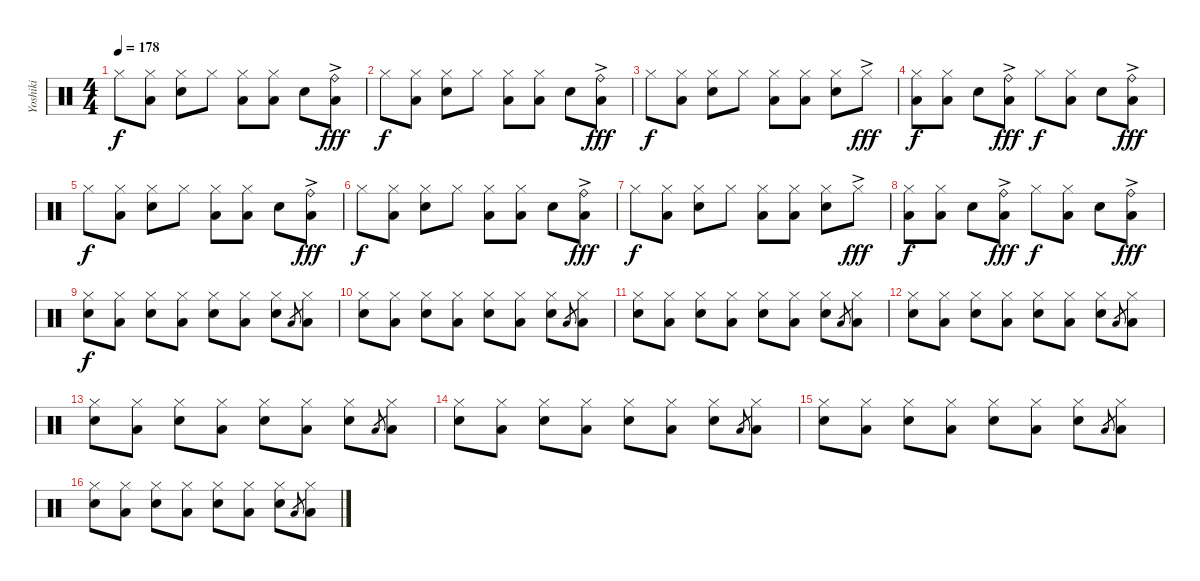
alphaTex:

\track ("Yoshiki" "Yoshiki") {instrument percussion}
\staff {score}
\articulation defaults
\ts (4 4)
\tempo 178
\clef neutral
\ks c "Hi-Hat (closed)".8{dy f}
("Hi-Hat (closed)" "Low Floor Tom (hit)").8 ("Hi-Hat (closed)" "Snare (hit) 2").8 "Hi-Hat (closed)".8 ("Hi-Hat (closed)" "Low Floor Tom (hit)").8 ("Hi-Hat (closed)" "Low Floor Tom (hit)").8 "Snare (hit) 2".8 ("Ride (bell)"{ac} "Low Floor Tom (hit)").8{dy fff} |
"Hi-Hat (closed)".8{dy f} ("Hi-Hat (closed)" "Low Floor Tom (hit)").8 ("Hi-Hat (closed)" "Snare (hit) 2").8 "Hi-Hat (closed)".8 ("Hi-Hat (closed)" "Low Floor Tom (hit)").8 ("Hi-Hat (closed)" "Low Floor Tom (hit)").8 "Snare (hit) 2".8 ("Ride (bell)"{ac} "Low Floor Tom (hit)").8{dy fff} |
"Hi-Hat (closed)".8{dy f} ("Hi-Hat (closed)" "Low Floor Tom (hit)").8 ("Hi-Hat (closed)" "Snare (hit) 2").8 "Hi-Hat (closed)".8 ("Hi-Hat (closed)" "Low Floor Tom (hit)").8 ("Hi-Hat (closed)" "Low Floor Tom (hit)").8 ("Hi-Hat (closed)" "Snare (hit) 2").8 "Hi-Hat (closed)"{ac}.8{dy fff} |
("Hi-Hat (closed)" "Low Floor Tom (hit)").8{dy f} ("Hi-Hat (closed)" "Low Floor Tom (hit)").8 "Snare (hit) 2".8 ("Ride (bell)"{ac} "Low Floor Tom (hit)").8{dy fff} "Hi-Hat (closed)".8{dy f} ("Hi-Hat (closed)" "Low Floor Tom (hit)").8 "Snare (hit) 2".8 ("Ride (bell)"{ac} "Low Floor Tom (hit)").8{dy fff} |
"Hi-Hat (closed)".8{dy f} ("Hi-Hat (closed)" "Low Floor Tom (hit)").8 ("Hi-Hat (closed)" "Snare (hit) 2").8 "Hi-Hat (closed)".8 ("Hi-Hat (closed)" "Low Floor Tom (hit)").8 ("Hi-Hat (closed)" "Low Floor Tom (hit)").8 "Snare (hit) 2".8 ("Ride (bell)"{ac} "Low Floor Tom (hit)").8{dy fff} |
"Hi-Hat (closed)".8{dy f} ("Hi-Hat (closed)" "Low Floor Tom (hit)").8 ("Hi-Hat (closed)" "Snare (hit) 2").8 "Hi-Hat (closed)".8 ("Hi-Hat (closed)" "Low Floor Tom (hit)").8 ("Hi-Hat (closed)" "Low Floor Tom (hit)").8 "Snare (hit) 2".8 ("Ride (bell)"{ac} "Low Floor Tom (hit)").8{dy fff} |
"Hi-Hat (closed)".8{dy f} ("Hi-Hat (closed)" "Low Floor Tom (hit)").8 ("Hi-Hat (closed)" "Snare (hit) 2").8 "Hi-Hat (closed)".8 ("Hi-Hat (closed)" "Low Floor Tom (hit)").8 ("Hi-Hat (closed)" "Low Floor Tom (hit)").8 ("Hi-Hat (closed)" "Snare (hit) 2").8 "Hi-Hat (closed)"{ac}.8{dy fff} |
("Hi-Hat (closed)" "Low Floor Tom (hit)").8{dy f} ("Hi-Hat (closed)" "Low Floor Tom (hit)").8 "Snare (hit) 2".8 ("Ride (bell)"{ac} "Low Floor Tom (hit)").8{dy fff} "Hi-Hat (closed)".8{dy f} ("Hi-Hat (closed)" "Low Floor Tom (hit)").8 "Snare (hit) 2".8 ("Ride (bell)"{ac} "Low Floor Tom (hit)").8{dy fff} |
("Hi-Hat (closed)" "Snare (hit) 2").8{dy f} ("Hi-Hat (closed)" "Low Floor Tom (hit)").8 ("Hi-Hat (closed)" "Snare (hit) 2").8 ("Hi-Hat (closed)" "Low Floor Tom (hit)").8 ("Hi-Hat (closed)" "Snare (hit) 2").8 ("Hi-Hat (closed)" "Low Floor Tom (hit)").8 ("Hi-Hat (closed)" "Snare (hit) 2").8 "Low Floor Tom (hit)".8{gr} ("Hi-Hat (closed)" "Low Floor Tom (hit)").8 |
("Hi-Hat (closed)" "Snare (hit) 2").8 ("Hi-Hat (closed)" "Low Floor Tom (hit)").8 ("Hi-Hat (closed)" "Snare (hit) 2").8 ("Hi-Hat (closed)" "Low Floor Tom (hit)").8 ("Hi-Hat (closed)" "Snare (hit) 2").8 ("Hi-Hat (closed)" "Low Floor Tom (hit)").8 ("Hi-Hat (closed)" "Snare (hit) 2").8 "Low Floor Tom (hit)".8{gr} ("Hi-Hat (closed)" "Low Floor Tom (hit)").8 |
("Hi-Hat (closed)" "Snare (hit) 2").8 ("Hi-Hat (closed)" "Low Floor Tom (hit)").8 ("Hi-Hat (closed)" "Snare (hit) 2").8 ("Hi-Hat (closed)" "Low Floor Tom (hit)").8 ("Hi-Hat (closed)" "Snare (hit) 2").8 ("Hi-Hat (closed)" "Low Floor Tom (hit)").8 ("Hi-Hat (closed)" "Snare (hit) 2").8 "Low Floor Tom (hit)".8{gr} ("Hi-Hat (closed)" "Low Floor Tom (hit)").8 |
("Hi-Hat (closed)" "Snare (hit) 2").8 ("Hi-Hat (closed)" "Low Floor Tom (hit)").8 ("Hi-Hat (closed)" "Snare (hit) 2").8 ("Hi-Hat (closed)" "Low Floor Tom (hit)").8 ("Hi-Hat (closed)" "Snare (hit) 2").8 ("Hi-Hat (closed)" "Low Floor Tom (hit)").8 ("Hi-Hat (closed)" "Snare (hit) 2").8 "Low Floor Tom (hit)".8{gr} ("Hi-Hat (closed)" "Low Floor Tom (hit)").8 |
("Hi-Hat (closed)" "Snare (hit) 2").8 ("Hi-Hat (closed)" "Low Floor Tom (hit)").8 ("Hi-Hat (closed)" "Snare (hit) 2").8 ("Hi-Hat (closed)" "Low Floor Tom (hit)").8 ("Hi-Hat (closed)" "Snare (hit) 2").8 ("Hi-Hat (closed)" "Low Floor Tom (hit)").8 ("Hi-Hat (closed)" "Snare (hit) 2").8 "Low Floor Tom (hit)".8{gr} ("Hi-Hat (closed)" "Low Floor Tom (hit)").8 |
("Hi-Hat (closed)" "Snare (hit) 2").8 ("Hi-Hat (closed)" "Low Floor Tom (hit)").8 ("Hi-Hat (closed)" "Snare (hit) 2").8 ("Hi-Hat (closed)" "Low Floor Tom (hit)").8 ("Hi-Hat (closed)" "Snare (hit) 2").8 ("Hi-Hat (closed)" "Low Floor Tom (hit)").8 ("Hi-Hat (closed)" "Snare (hit) 2").8 "Low Floor Tom (hit)".8{gr} ("Hi-Hat (closed)" "Low Floor Tom (hit)").8 |
("Hi-Hat (closed)" "Snare (hit) 2").8 ("Hi-Hat (closed)" "Low Floor Tom (hit)").8 ("Hi-Hat (closed)" "Snare (hit) 2").8 ("Hi-Hat (closed)" "Low Floor Tom (hit)").8 ("Hi-Hat (closed)" "Snare (hit) 2").8 ("Hi-Hat (closed)" "Low Floor Tom (hit)").8 ("Hi-Hat (closed)" "Snare (hit) 2").8 "Low Floor Tom (hit)".8{gr} ("Hi-Hat (closed)" "Low Floor Tom (hit)").8 |
("Hi-Hat (closed)" "Snare (hit) 2").8 ("Hi-Hat (closed)" "Low Floor Tom (hit)").8 ("Hi-Hat (closed)" "Snare (hit) 2").8 ("Hi-Hat (closed)" "Low Floor Tom (hit)").8 ("Hi-Hat (closed)" "Snare (hit) 2").8 ("Hi-Hat (closed)" "Low Floor Tom (hit)").8 ("Hi-Hat (closed)" "Snare (hit) 2").8 "Low Floor Tom (hit)".8{gr} ("Hi-Hat (closed)" "Low Floor Tom (hit)").8
